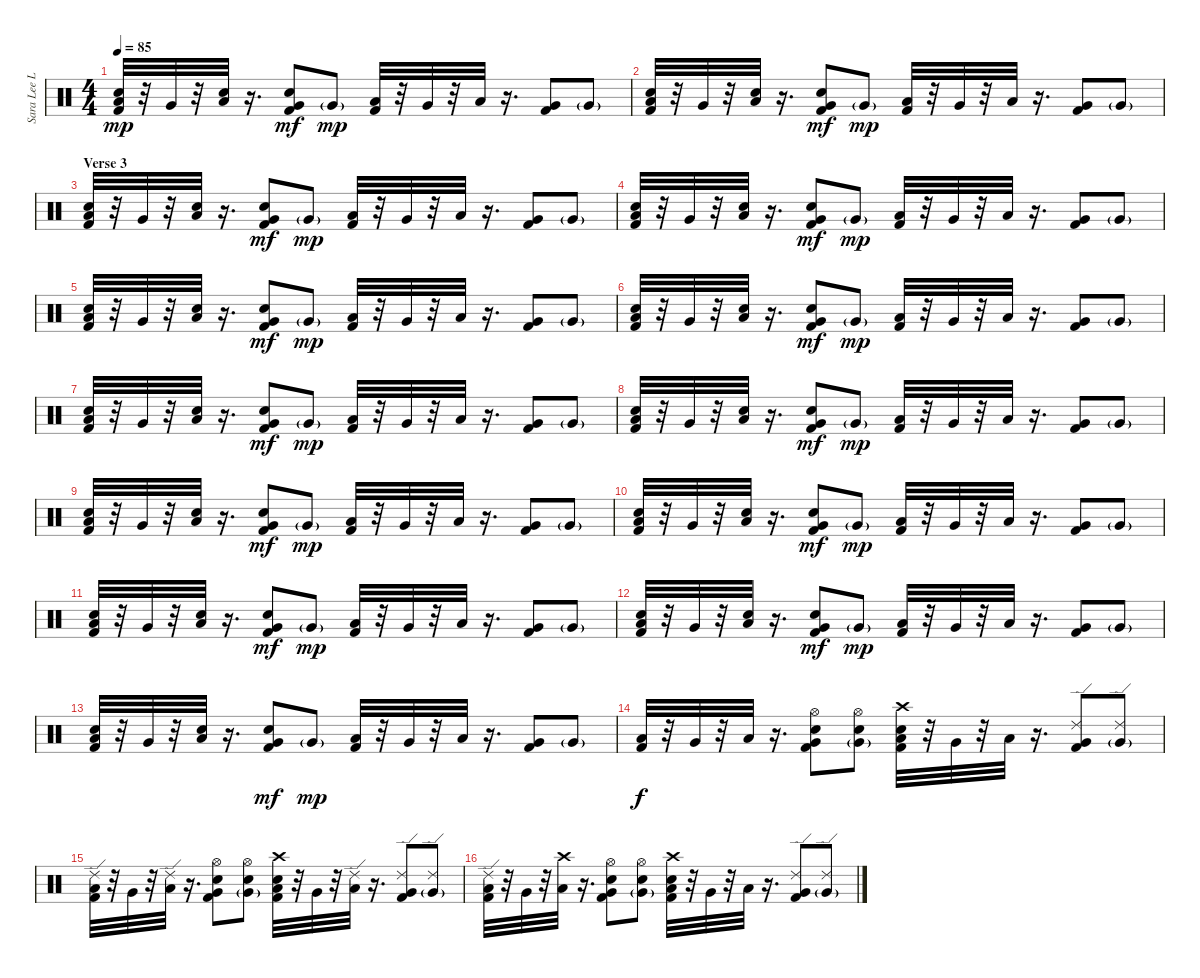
\track ("Sara Lee Lucas [Drums]" "Sara Lee L") {instrument percussion}
\staff {score}
\articulation defaults
\ts (4 4)
\tempo 85
\clef neutral
\ks c
("Low Tom (hit)" "Snare (hit) 2" "Kick (hit) 2").32{dy mp} r.32 "Very Low Tom (hit)".32 r.32 ("Low Floor Tom (hit)" "Snare (hit) 2").32 r.16{d} ("Very Low Tom (hit)" "Electric Snare (hit)" "Kick (hit) 2").8{dy mf} "Very Low Tom (hit)"{g}.8{dy mp} ("Low Tom (hit)" "Kick (hit) 2").32 r.32 "Very Low Tom (hit)".32 r.32 "Low Floor Tom (hit)".32 r.16{d} ("Very Low Tom (hit)" "Kick (hit) 2").8 "Very Low Tom (hit)"{g}.8 |
("Low Tom (hit)" "Snare (hit) 2" "Kick (hit) 2").32 r.32 "Very Low Tom (hit)".32 r.32 ("Low Floor Tom (hit)" "Snare (hit) 2").32 r.16{d} ("Very Low Tom (hit)" "Electric Snare (hit)" "Kick (hit) 2").8{dy mf} "Very Low Tom (hit)"{g}.8{dy mp} ("Low Tom (hit)" "Kick (hit) 2").32 r.32 "Very Low Tom (hit)".32 r.32 "Low Floor Tom (hit)".32 r.16{d} ("Very Low Tom (hit)" "Kick (hit) 2").8 "Very Low Tom (hit)"{g}.8 |
\section ("" "Verse 3")
("Low Tom (hit)" "Snare (hit) 2" "Kick (hit) 2").32 r.32 "Very Low Tom (hit)".32 r.32 ("Low Floor Tom (hit)" "Snare (hit) 2").32 r.16{d} ("Very Low Tom (hit)" "Electric Snare (hit)" "Kick (hit) 2").8{dy mf} "Very Low Tom (hit)"{g}.8{dy mp} ("Low Tom (hit)" "Kick (hit) 2").32 r.32 "Very Low Tom (hit)".32 r.32 "Low Floor Tom (hit)".32 r.16{d} ("Very Low Tom (hit)" "Kick (hit) 2").8 "Very Low Tom (hit)"{g}.8 |
("Low Tom (hit)" "Snare (hit) 2" "Kick (hit) 2").32 r.32 "Very Low Tom (hit)".32 r.32 ("Low Floor Tom (hit)" "Snare (hit) 2").32 r.16{d} ("Very Low Tom (hit)" "Electric Snare (hit)" "Kick (hit) 2").8{dy mf} "Very Low Tom (hit)"{g}.8{dy mp} ("Low Tom (hit)" "Kick (hit) 2").32 r.32 "Very Low Tom (hit)".32 r.32 "Low Floor Tom (hit)".32 r.16{d} ("Very Low Tom (hit)" "Kick (hit) 2").8 "Very Low Tom (hit)"{g}.8 |
("Low Tom (hit)" "Snare (hit) 2" "Kick (hit) 2").32 r.32 "Very Low Tom (hit)".32 r.32 ("Low Floor Tom (hit)" "Snare (hit) 2").32 r.16{d} ("Very Low Tom (hit)" "Electric Snare (hit)" "Kick (hit) 2").8{dy mf} "Very Low Tom (hit)"{g}.8{dy mp} ("Low Tom (hit)" "Kick (hit) 2").32 r.32 "Very Low Tom (hit)".32 r.32 "Low Floor Tom (hit)".32 r.16{d} ("Very Low Tom (hit)" "Kick (hit) 2").8 "Very Low Tom (hit)"{g}.8 |
("Low Tom (hit)" "Snare (hit) 2" "Kick (hit) 2").32 r.32 "Very Low Tom (hit)".32 r.32 ("Low Floor Tom (hit)" "Snare (hit) 2").32 r.16{d} ("Very Low Tom (hit)" "Electric Snare (hit)" "Kick (hit) 2").8{dy mf} "Very Low Tom (hit)"{g}.8{dy mp} ("Low Tom (hit)" "Kick (hit) 2").32 r.32 "Very Low Tom (hit)".32 r.32 "Low Floor Tom (hit)".32 r.16{d} ("Very Low Tom (hit)" "Kick (hit) 2").8 "Very Low Tom (hit)"{g}.8 |
("Low Tom (hit)" "Snare (hit) 2" "Kick (hit) 2").32 r.32 "Very Low Tom (hit)".32 r.32 ("Low Floor Tom (hit)" "Snare (hit) 2").32 r.16{d} ("Very Low Tom (hit)" "Electric Snare (hit)" "Kick (hit) 2").8{dy mf} "Very Low Tom (hit)"{g}.8{dy mp} ("Low Tom (hit)" "Kick (hit) 2").32 r.32 "Very Low Tom (hit)".32 r.32 "Low Floor Tom (hit)".32 r.16{d} ("Very Low Tom (hit)" "Kick (hit) 2").8 "Very Low Tom (hit)"{g}.8 |
("Low Tom (hit)" "Snare (hit) 2" "Kick (hit) 2").32 r.32 "Very Low Tom (hit)".32 r.32 ("Low Floor Tom (hit)" "Snare (hit) 2").32 r.16{d} ("Very Low Tom (hit)" "Electric Snare (hit)" "Kick (hit) 2").8{dy mf} "Very Low Tom (hit)"{g}.8{dy mp} ("Low Tom (hit)" "Kick (hit) 2").32 r.32 "Very Low Tom (hit)".32 r.32 "Low Floor Tom (hit)".32 r.16{d} ("Very Low Tom (hit)" "Kick (hit) 2").8 "Very Low Tom (hit)"{g}.8 |
("Low Tom (hit)" "Snare (hit) 2" "Kick (hit) 2").32 r.32 "Very Low Tom (hit)".32 r.32 ("Low Floor Tom (hit)" "Snare (hit) 2").32 r.16{d} ("Very Low Tom (hit)" "Electric Snare (hit)" "Kick (hit) 2").8{dy mf} "Very Low Tom (hit)"{g}.8{dy mp} ("Low Tom (hit)" "Kick (hit) 2").32 r.32 "Very Low Tom (hit)".32 r.32 "Low Floor Tom (hit)".32 r.16{d} ("Very Low Tom (hit)" "Kick (hit) 2").8 "Very Low Tom (hit)"{g}.8 |
("Low Tom (hit)" "Snare (hit) 2" "Kick (hit) 2").32 r.32 "Very Low Tom (hit)".32 r.32 ("Low Floor Tom (hit)" "Snare (hit) 2").32 r.16{d} ("Very Low Tom (hit)" "Electric Snare (hit)" "Kick (hit) 2").8{dy mf} "Very Low Tom (hit)"{g}.8{dy mp} ("Low Tom (hit)" "Kick (hit) 2").32 r.32 "Very Low Tom (hit)".32 r.32 "Low Floor Tom (hit)".32 r.16{d} ("Very Low Tom (hit)" "Kick (hit) 2").8 "Very Low Tom (hit)"{g}.8 |
("Low Tom (hit)" "Snare (hit) 2" "Kick (hit) 2").32 r.32 "Very Low Tom (hit)".32 r.32 ("Low Floor Tom (hit)" "Snare (hit) 2").32 r.16{d} ("Very Low Tom (hit)" "Electric Snare (hit)" "Kick (hit) 2").8{dy mf} "Very Low Tom (hit)"{g}.8{dy mp} ("Low Tom (hit)" "Kick (hit) 2").32 r.32 "Very Low Tom (hit)".32 r.32 "Low Floor Tom (hit)".32 r.16{d} ("Very Low Tom (hit)" "Kick (hit) 2").8 "Very Low Tom (hit)"{g}.8 |
("Low Tom (hit)" "Snare (hit) 2" "Kick (hit) 2").32 r.32 "Very Low Tom (hit)".32 r.32 ("Low Floor Tom (hit)" "Snare (hit) 2").32 r.16{d} ("Very Low Tom (hit)" "Electric Snare (hit)" "Kick (hit) 2").8{dy mf} "Very Low Tom (hit)"{g}.8{dy mp} ("Low Tom (hit)" "Kick (hit) 2").32 r.32 "Very Low Tom (hit)".32 r.32 "Low Floor Tom (hit)".32 r.16{d} ("Very Low Tom (hit)" "Kick (hit) 2").8 "Very Low Tom (hit)"{g}.8 |
("Low Tom (hit)" "Snare (hit) 2" "Kick (hit) 2").32 r.32 "Very Low Tom (hit)".32 r.32 ("Low Floor Tom (hit)" "Snare (hit) 2").32 r.16{d} ("Very Low Tom (hit)" "Electric Snare (hit)" "Kick (hit) 2").8{dy mf} "Very Low Tom (hit)"{g}.8{dy mp} ("Low Tom (hit)" "Kick (hit) 2").32 r.32 "Very Low Tom (hit)".32 r.32 "Low Floor Tom (hit)".32 r.16{d} ("Very Low Tom (hit)" "Kick (hit) 2").8 "Very Low Tom (hit)"{g}.8 |
("Low Tom (hit)" "Kick (hit) 2").32{dy f} r.32 "Very Low Tom (hit)".32 r.32 "Low Floor Tom (hit)".32 r.16{d} ("Hi-Hat (open)" "Very Low Tom (hit)" "Snare (hit) 2" "Kick (hit) 2").8 ("Hi-Hat (open)" "Very Low Tom (hit)"{g} "Snare (hit) 2").8 ("Crash high (hit)" "Low Tom (hit)" "Electric Snare (hit)" "Kick (hit) 2").32 r.32 "Very Low Tom (hit)".32 r.32 "Low Floor Tom (hit)".32 r.16{d} ("Ride (edge) 2" "Very Low Tom (hit)" "Kick (hit) 2").8 ("Ride (edge) 2" "Very Low Tom (hit)"{g}).8 |
("Ride (edge) 2" "Low Tom (hit)" "Kick (hit) 2").32 r.32 "Very Low Tom (hit)".32 r.32 ("Ride (edge) 2" "Low Floor Tom (hit)").32 r.16{d} ("Hi-Hat (open)" "Very Low Tom (hit)" "Snare (hit) 2" "Kick (hit) 2").8 ("Hi-Hat (open)" "Very Low Tom (hit)"{g} "Snare (hit) 2").8 ("Crash high (hit)" "Low Tom (hit)" "Electric Snare (hit)" "Kick (hit) 2").32 r.32 "Very Low Tom (hit)".32 r.32 ("Ride (edge) 2" "Low Floor Tom (hit)").32 r.16{d} ("Ride (edge) 2" "Very Low Tom (hit)" "Kick (hit) 2").8 ("Ride (edge) 2" "Very Low Tom (hit)"{g}).8 |
("Ride (edge) 2" "Low Tom (hit)" "Kick (hit) 2").32 r.32 "Very Low Tom (hit)".32 r.32 ("Crash high (hit)" "Low Floor Tom (hit)").32 r.16{d} ("Hi-Hat (open)" "Very Low Tom (hit)" "Snare (hit) 2" "Kick (hit) 2").8 ("Hi-Hat (open)" "Very Low Tom (hit)"{g} "Snare (hit) 2").8 ("Crash high (hit)" "Low Tom (hit)" "Electric Snare (hit)" "Kick (hit) 2").32 r.32 "Very Low Tom (hit)".32 r.32 "Low Floor Tom (hit)".32 r.16{d} ("Ride (edge) 2" "Very Low Tom (hit)" "Kick (hit) 2").8 ("Ride (edge) 2" "Very Low Tom (hit)"{g}).8
